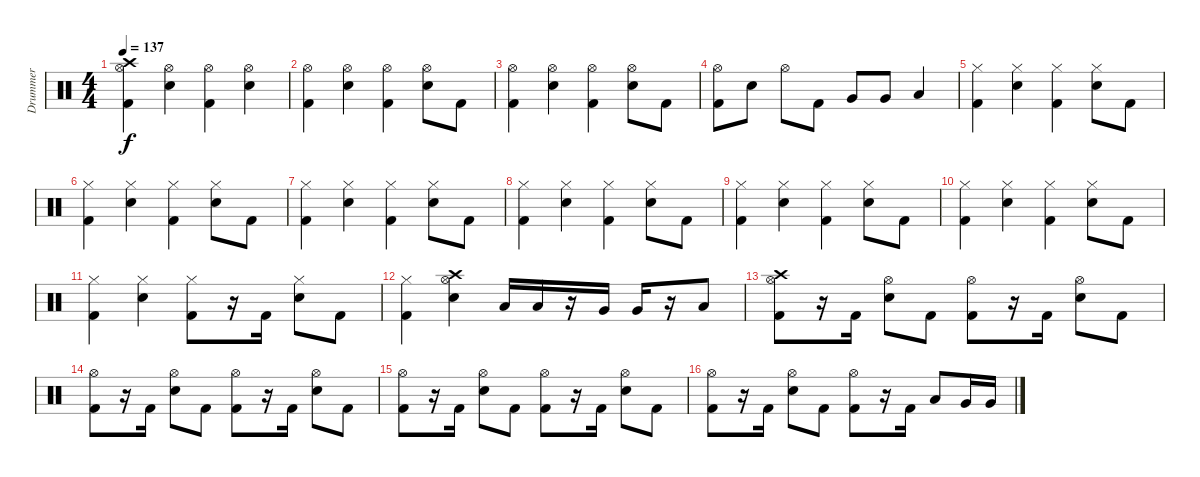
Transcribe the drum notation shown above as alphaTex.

\track ("Drummer" "Drummer") {instrument percussion}
\staff {score}
\articulation defaults
\ts (4 4)
\tempo 137
\clef neutral
\ks c
("Crash high (hit)" "Hi-Hat (open)" "Kick (hit) 2").4{dy f} ("Hi-Hat (open)" "Electric Snare (hit)").4 ("Hi-Hat (open)" "Kick (hit) 2").4 ("Hi-Hat (open)" "Electric Snare (hit)").4 |
("Hi-Hat (open)" "Kick (hit) 2").4 ("Hi-Hat (open)" "Electric Snare (hit)").4 ("Hi-Hat (open)" "Kick (hit) 2").4 ("Hi-Hat (open)" "Electric Snare (hit)").8 "Kick (hit) 2".8 |
("Hi-Hat (open)" "Kick (hit) 2").4 ("Hi-Hat (open)" "Electric Snare (hit)").4 ("Hi-Hat (open)" "Kick (hit) 2").4 ("Hi-Hat (open)" "Electric Snare (hit)").8 "Kick (hit) 2".8 |
("Hi-Hat (open)" "Kick (hit) 2").8 "Electric Snare (hit)".8 "Hi-Hat (open)".8 "Kick (hit) 2".8 "Very Low Tom (hit)".8 "Very Low Tom (hit)".8 "Low Floor Tom (hit)".4 |
("Hi-Hat (closed)" "Kick (hit) 2").4 ("Hi-Hat (closed)" "Electric Snare (hit)").4 ("Hi-Hat (closed)" "Kick (hit) 2").4 ("Hi-Hat (closed)" "Electric Snare (hit)").8 "Kick (hit) 2".8 |
("Hi-Hat (closed)" "Kick (hit) 2").4 ("Hi-Hat (closed)" "Electric Snare (hit)").4 ("Hi-Hat (closed)" "Kick (hit) 2").4 ("Hi-Hat (closed)" "Electric Snare (hit)").8 "Kick (hit) 2".8 |
("Hi-Hat (closed)" "Kick (hit) 2").4 ("Hi-Hat (closed)" "Electric Snare (hit)").4 ("Hi-Hat (closed)" "Kick (hit) 2").4 ("Hi-Hat (closed)" "Electric Snare (hit)").8 "Kick (hit) 2".8 |
("Hi-Hat (closed)" "Kick (hit) 2").4 ("Hi-Hat (closed)" "Electric Snare (hit)").4 ("Hi-Hat (closed)" "Kick (hit) 2").4 ("Hi-Hat (closed)" "Electric Snare (hit)").8 "Kick (hit) 2".8 |
("Hi-Hat (closed)" "Kick (hit) 2").4 ("Hi-Hat (closed)" "Electric Snare (hit)").4 ("Hi-Hat (closed)" "Kick (hit) 2").4 ("Hi-Hat (closed)" "Electric Snare (hit)").8 "Kick (hit) 2".8 |
("Hi-Hat (closed)" "Kick (hit) 2").4 ("Hi-Hat (closed)" "Electric Snare (hit)").4 ("Hi-Hat (closed)" "Kick (hit) 2").4 ("Hi-Hat (closed)" "Electric Snare (hit)").8 "Kick (hit) 2".8 |
("Hi-Hat (closed)" "Kick (hit) 2").4 ("Hi-Hat (closed)" "Electric Snare (hit)").4 ("Hi-Hat (closed)" "Kick (hit) 2").8 r.16 "Kick (hit) 2".16 ("Hi-Hat (closed)" "Electric Snare (hit)").8 "Kick (hit) 2".8 |
("Hi-Hat (closed)" "Kick (hit) 2").4 ("Hi-Hat (open)" "Crash high (hit)" "Electric Snare (hit)").4 "Low Tom (hit)".16 "Low Tom (hit)".16 r.16 "Very Low Tom (hit)".16 "Very Low Tom (hit)".16 r.16 "Low Floor Tom (hit)".8 |
("Hi-Hat (open)" "Kick (hit) 2" "Crash high (hit)").8 r.16 "Kick (hit) 2".16 ("Hi-Hat (open)" "Electric Snare (hit)").8 "Kick (hit) 2".8 ("Hi-Hat (open)" "Kick (hit) 2").8 r.16 "Kick (hit) 2".16 ("Hi-Hat (open)" "Electric Snare (hit)").8 "Kick (hit) 2".8 |
("Hi-Hat (open)" "Kick (hit) 2").8 r.16 "Kick (hit) 2".16 ("Hi-Hat (open)" "Electric Snare (hit)").8 "Kick (hit) 2".8 ("Hi-Hat (open)" "Kick (hit) 2").8 r.16 "Kick (hit) 2".16 ("Hi-Hat (open)" "Electric Snare (hit)").8 "Kick (hit) 2".8 |
("Hi-Hat (open)" "Kick (hit) 2").8 r.16 "Kick (hit) 2".16 ("Hi-Hat (open)" "Electric Snare (hit)").8 "Kick (hit) 2".8 ("Hi-Hat (open)" "Kick (hit) 2").8 r.16 "Kick (hit) 2".16 ("Hi-Hat (open)" "Electric Snare (hit)").8 "Kick (hit) 2".8 |
("Hi-Hat (open)" "Kick (hit) 2").8 r.16 "Kick (hit) 2".16 ("Hi-Hat (open)" "Electric Snare (hit)").8 "Kick (hit) 2".8 ("Hi-Hat (open)" "Kick (hit) 2").8 r.16 "Kick (hit) 2".16 "Low Tom (hit)".8 "Very Low Tom (hit)".16 "Very Low Tom (hit)".16
